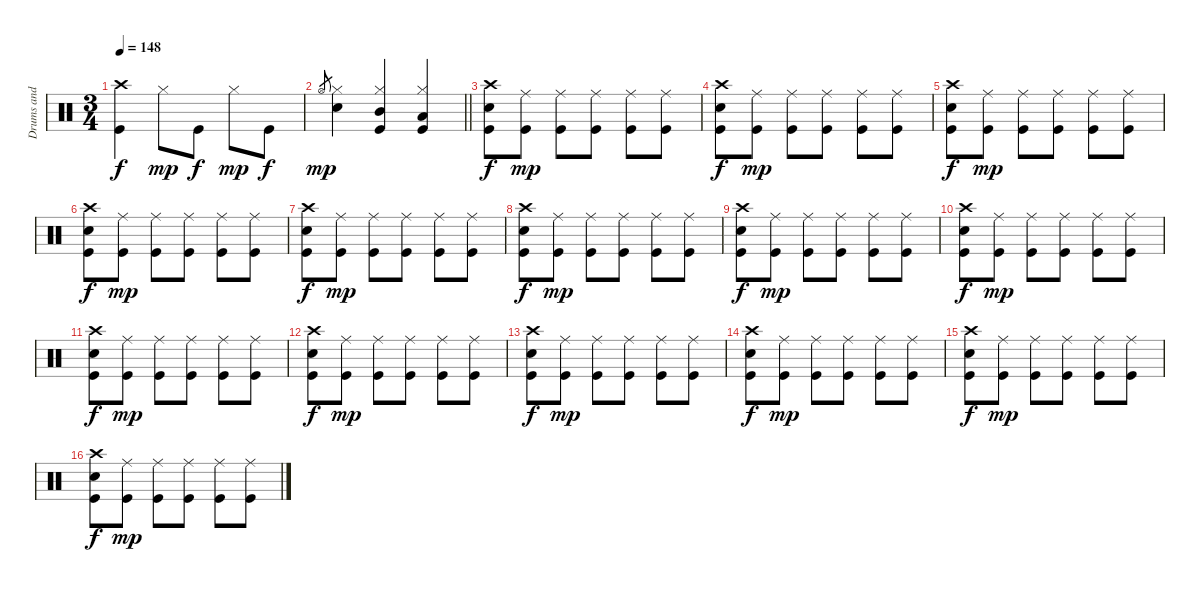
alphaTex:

\track ("Drums and percussion" "Drums and ") {instrument percussion}
\staff {score}
\articulation defaults
\ts (3 4)
\tempo 148
\clef neutral
\ks c
("Crash high (hit)" "Kick (hit)").4{dy f} "Hi-Hat (closed)".8{dy mp} "Kick (hit)".8{dy f} "Hi-Hat (closed)".8{dy mp} "Kick (hit)".8{dy f} |
\barLineRight lightlight "Hi-Hat (open)".8{gr dy mp}
("Hi-Hat (closed)" "Electric Snare (hit)").4 ("Hi-Hat (closed)" "Mid Tom (hit)" "Kick (hit)").4 ("Hi-Hat (closed)" "Low Tom (hit)" "Kick (hit)").4 |
("Kick (hit)" "Electric Snare (hit)" "Crash high (hit)").8{dy f} ("Kick (hit)" "Ride (middle)").8{dy mp} ("Kick (hit)" "Ride (middle)").8 ("Kick (hit)" "Ride (middle)").8 ("Kick (hit)" "Ride (middle)").8 ("Kick (hit)" "Ride (middle)").8 |
("Kick (hit)" "Electric Snare (hit)" "Crash high (hit)").8{dy f} ("Kick (hit)" "Ride (middle)").8{dy mp} ("Kick (hit)" "Ride (middle)").8 ("Kick (hit)" "Ride (middle)").8 ("Kick (hit)" "Ride (middle)").8 ("Kick (hit)" "Ride (middle)").8 |
("Kick (hit)" "Electric Snare (hit)" "Crash high (hit)").8{dy f} ("Kick (hit)" "Ride (middle)").8{dy mp} ("Kick (hit)" "Ride (middle)").8 ("Kick (hit)" "Ride (middle)").8 ("Kick (hit)" "Ride (middle)").8 ("Kick (hit)" "Ride (middle)").8 |
("Kick (hit)" "Electric Snare (hit)" "Crash high (hit)").8{dy f} ("Kick (hit)" "Ride (middle)").8{dy mp} ("Kick (hit)" "Ride (middle)").8 ("Kick (hit)" "Ride (middle)").8 ("Kick (hit)" "Ride (middle)").8 ("Kick (hit)" "Ride (middle)").8 |
("Kick (hit)" "Electric Snare (hit)" "Crash high (hit)").8{dy f} ("Kick (hit)" "Ride (middle)").8{dy mp} ("Kick (hit)" "Ride (middle)").8 ("Kick (hit)" "Ride (middle)").8 ("Kick (hit)" "Ride (middle)").8 ("Kick (hit)" "Ride (middle)").8 |
("Kick (hit)" "Electric Snare (hit)" "Crash high (hit)").8{dy f} ("Kick (hit)" "Ride (middle)").8{dy mp} ("Kick (hit)" "Ride (middle)").8 ("Kick (hit)" "Ride (middle)").8 ("Kick (hit)" "Ride (middle)").8 ("Kick (hit)" "Ride (middle)").8 |
("Kick (hit)" "Electric Snare (hit)" "Crash high (hit)").8{dy f} ("Kick (hit)" "Ride (middle)").8{dy mp} ("Kick (hit)" "Ride (middle)").8 ("Kick (hit)" "Ride (middle)").8 ("Kick (hit)" "Ride (middle)").8 ("Kick (hit)" "Ride (middle)").8 |
("Kick (hit)" "Electric Snare (hit)" "Crash high (hit)").8{dy f} ("Kick (hit)" "Ride (middle)").8{dy mp} ("Kick (hit)" "Ride (middle)").8 ("Kick (hit)" "Ride (middle)").8 ("Kick (hit)" "Ride (middle)").8 ("Kick (hit)" "Ride (middle)").8 |
("Kick (hit)" "Electric Snare (hit)" "Crash high (hit)").8{dy f} ("Kick (hit)" "Ride (middle)").8{dy mp} ("Kick (hit)" "Ride (middle)").8 ("Kick (hit)" "Ride (middle)").8 ("Kick (hit)" "Ride (middle)").8 ("Kick (hit)" "Ride (middle)").8 |
("Kick (hit)" "Electric Snare (hit)" "Crash high (hit)").8{dy f} ("Kick (hit)" "Ride (middle)").8{dy mp} ("Kick (hit)" "Ride (middle)").8 ("Kick (hit)" "Ride (middle)").8 ("Kick (hit)" "Ride (middle)").8 ("Kick (hit)" "Ride (middle)").8 |
("Kick (hit)" "Electric Snare (hit)" "Crash high (hit)").8{dy f} ("Kick (hit)" "Ride (middle)").8{dy mp} ("Kick (hit)" "Ride (middle)").8 ("Kick (hit)" "Ride (middle)").8 ("Kick (hit)" "Ride (middle)").8 ("Kick (hit)" "Ride (middle)").8 |
("Kick (hit)" "Electric Snare (hit)" "Crash high (hit)").8{dy f volume 0} ("Kick (hit)" "Ride (middle)").8{dy mp} ("Kick (hit)" "Ride (middle)").8 ("Kick (hit)" "Ride (middle)").8 ("Kick (hit)" "Ride (middle)").8 ("Kick (hit)" "Ride (middle)").8 |
("Kick (hit)" "Electric Snare (hit)" "Crash high (hit)").8{dy f} ("Kick (hit)" "Ride (middle)").8{dy mp} ("Kick (hit)" "Ride (middle)").8 ("Kick (hit)" "Ride (middle)").8 ("Kick (hit)" "Ride (middle)").8 ("Kick (hit)" "Ride (middle)").8 |
("Kick (hit)" "Electric Snare (hit)" "Crash high (hit)").8{dy f} ("Kick (hit)" "Ride (middle)").8{dy mp} ("Kick (hit)" "Ride (middle)").8 ("Kick (hit)" "Ride (middle)").8 ("Kick (hit)" "Ride (middle)").8 ("Kick (hit)" "Ride (middle)").8
